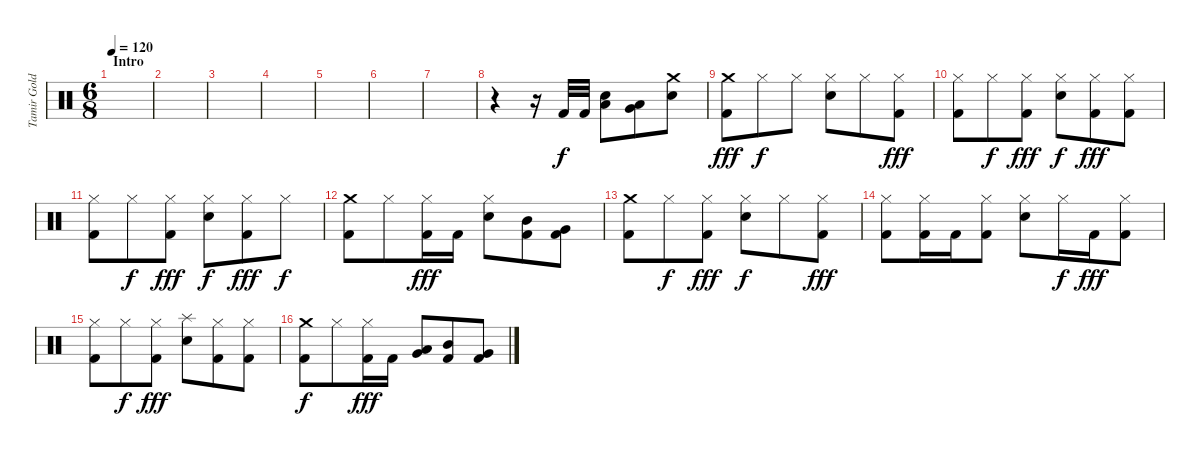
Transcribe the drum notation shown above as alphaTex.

\track ("Tamir Goldberg" "Tamir Gold") {instrument percussion}
\staff {score}
\articulation defaults
\ts (6 8)
\section ("" "Intro")
\tempo 120
\clef neutral
\ks c
|
|
|
|
|
|
|
r.4 r.16 "Kick (hit) 2".32 "Kick (hit) 2".32 ("Electric Snare (hit)" "Low Tom (hit)").8{dy f} ("Very Low Tom (hit)" "Low Tom (hit)").8 ("Crash medium (hit)" "Electric Snare (hit)").8 |
("Crash medium (hit)" "Kick (hit) 2").8{dy fff} "Hi-Hat (closed)".8{dy f} "Hi-Hat (closed)".8 ("Hi-Hat (closed)" "Electric Snare (hit)").8 "Hi-Hat (closed)".8 ("Hi-Hat (closed)" "Kick (hit) 2").8{dy fff} |
("Hi-Hat (closed)" "Kick (hit) 2").8 "Hi-Hat (closed)".8{dy f} ("Hi-Hat (closed)" "Kick (hit) 2").8{dy fff} ("Hi-Hat (closed)" "Electric Snare (hit)").8{dy f} ("Hi-Hat (closed)" "Kick (hit) 2").8{dy fff} ("Hi-Hat (closed)" "Kick (hit) 2").8 |
("Hi-Hat (closed)" "Kick (hit) 2").8 "Hi-Hat (closed)".8{dy f} ("Hi-Hat (closed)" "Kick (hit) 2").8{dy fff} ("Hi-Hat (closed)" "Electric Snare (hit)").8{dy f} ("Hi-Hat (closed)" "Kick (hit) 2").8{dy fff} "Hi-Hat (closed)".8{dy f} |
("Crash medium (hit)" "Kick (hit) 2").8 "Hi-Hat (closed)".8 ("Hi-Hat (closed)" "Kick (hit) 2").16{dy fff} "Kick (hit) 2".16 ("Hi-Hat (closed)" "Electric Snare (hit)").8 ("Mid Tom (hit)" "Kick (hit) 2").8 ("Very Low Tom (hit)" "Kick (hit) 2").8 |
("Crash medium (hit)" "Kick (hit) 2").8 "Hi-Hat (closed)".8{dy f} ("Hi-Hat (closed)" "Kick (hit) 2").8{dy fff} ("Hi-Hat (closed)" "Electric Snare (hit)").8{dy f} "Hi-Hat (closed)".8 ("Hi-Hat (closed)" "Kick (hit) 2").8{dy fff} |
("Hi-Hat (closed)" "Kick (hit) 2").8 ("Hi-Hat (closed)" "Kick (hit) 2").16 "Kick (hit) 2".16 ("Hi-Hat (closed)" "Kick (hit) 2").8 ("Hi-Hat (closed)" "Electric Snare (hit)").8 "Hi-Hat (closed)".16{dy f} "Kick (hit) 2".16{dy fff} ("Hi-Hat (closed)" "Kick (hit) 2").8 |
("Hi-Hat (closed)" "Kick (hit) 2").8 "Hi-Hat (closed)".8{dy f} ("Hi-Hat (closed)" "Kick (hit) 2").8{dy fff} ("Splash (hit)" "Electric Snare (hit)").8 ("Hi-Hat (closed)" "Kick (hit) 2").8 ("Hi-Hat (closed)" "Kick (hit) 2").8 |
("Crash medium (hit)" "Kick (hit) 2").8{dy f} "Hi-Hat (closed)".8 ("Hi-Hat (closed)" "Kick (hit) 2").16{dy fff} "Kick (hit) 2".16 ("Low Tom (hit)" "Very Low Tom (hit)").8 ("Mid Tom (hit)" "Kick (hit) 2").8 ("Very Low Tom (hit)" "Kick (hit) 2").8
